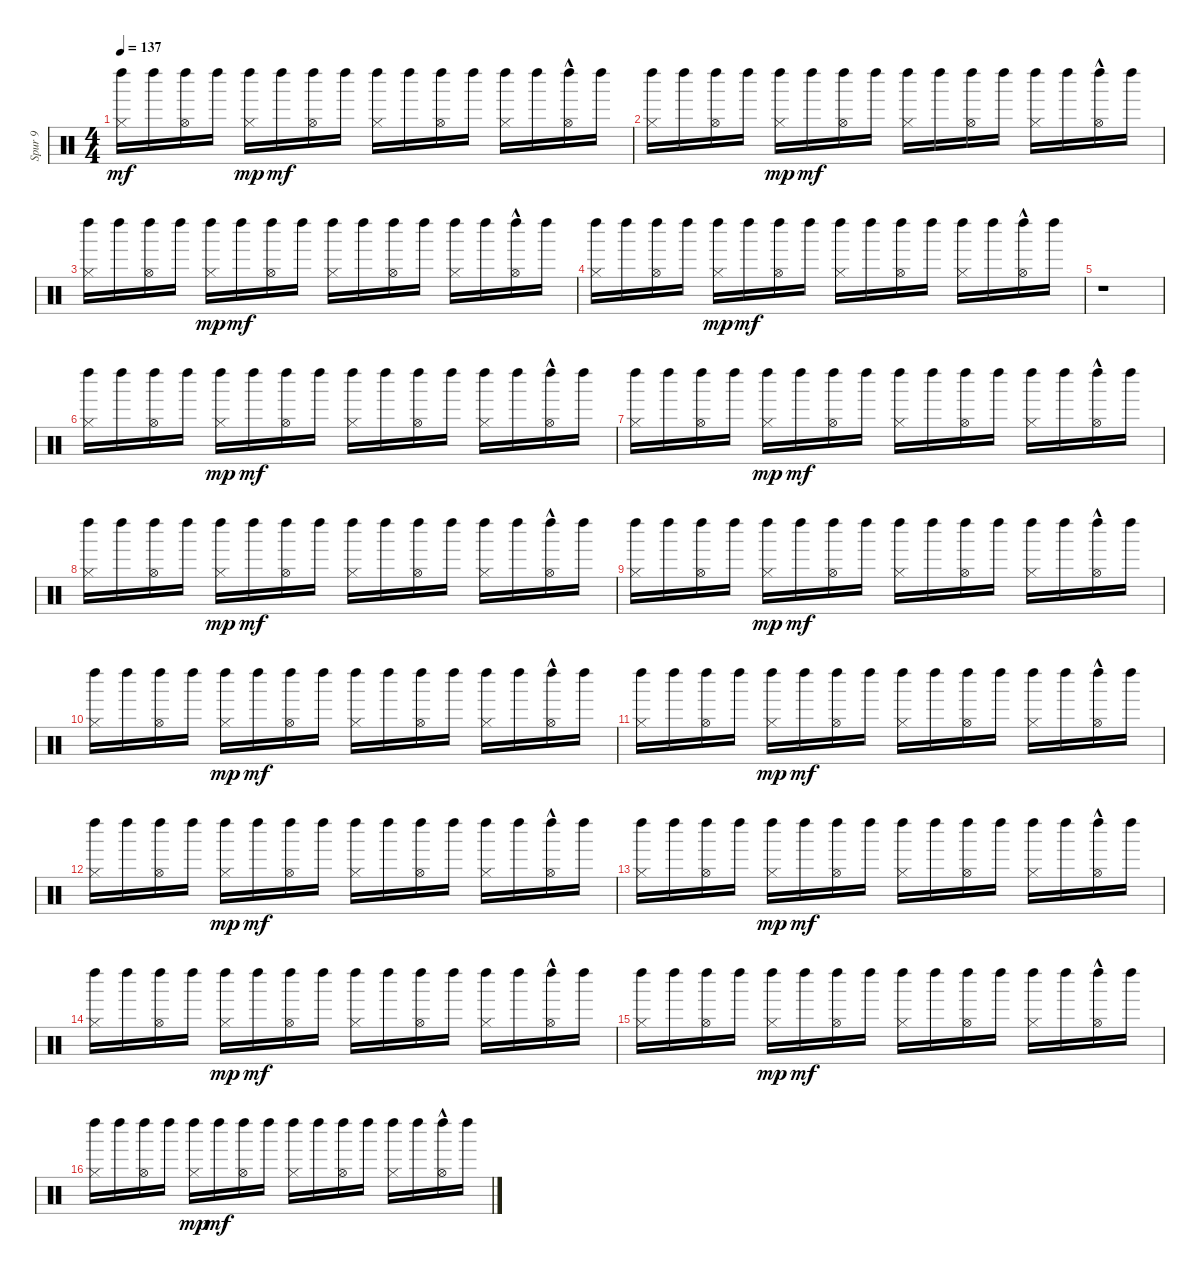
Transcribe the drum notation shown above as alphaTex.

\track ("Spur 9" "Spur 9") {instrument percussion}
\staff {score}
\articulation defaults
\ts (4 4)
\tempo 137
\clef neutral
\ks c
("Hi-Hat (closed)" "Left Maraca (hit)").16{dy mf} "Left Maraca (hit)".16 ("Hi-Hat (open)" "Left Maraca (hit)").16 "Left Maraca (hit)".16 ("Hi-Hat (closed)" "Left Maraca (hit)").16{dy mp} "Left Maraca (hit)".16{dy mf} ("Hi-Hat (open)" "Left Maraca (hit)").16 "Left Maraca (hit)".16 ("Hi-Hat (closed)" "Left Maraca (hit)").16 "Left Maraca (hit)".16 ("Hi-Hat (open)" "Left Maraca (hit)").16 "Left Maraca (hit)".16 ("Hi-Hat (closed)" "Left Maraca (hit)").16 "Left Maraca (hit)".16 ("Hi-Hat (open)"{hac} "Left Maraca (hit)").16 "Left Maraca (hit)".16 |
("Hi-Hat (closed)" "Left Maraca (hit)").16 "Left Maraca (hit)".16 ("Hi-Hat (open)" "Left Maraca (hit)").16 "Left Maraca (hit)".16 ("Hi-Hat (closed)" "Left Maraca (hit)").16{dy mp} "Left Maraca (hit)".16{dy mf} ("Hi-Hat (open)" "Left Maraca (hit)").16 "Left Maraca (hit)".16 ("Hi-Hat (closed)" "Left Maraca (hit)").16 "Left Maraca (hit)".16 ("Hi-Hat (open)" "Left Maraca (hit)").16 "Left Maraca (hit)".16 ("Hi-Hat (closed)" "Left Maraca (hit)").16 "Left Maraca (hit)".16 ("Hi-Hat (open)"{hac} "Left Maraca (hit)").16 "Left Maraca (hit)".16 |
("Hi-Hat (closed)" "Left Maraca (hit)").16 "Left Maraca (hit)".16 ("Hi-Hat (open)" "Left Maraca (hit)").16 "Left Maraca (hit)".16 ("Hi-Hat (closed)" "Left Maraca (hit)").16{dy mp} "Left Maraca (hit)".16{dy mf} ("Hi-Hat (open)" "Left Maraca (hit)").16 "Left Maraca (hit)".16 ("Hi-Hat (closed)" "Left Maraca (hit)").16 "Left Maraca (hit)".16 ("Hi-Hat (open)" "Left Maraca (hit)").16 "Left Maraca (hit)".16 ("Hi-Hat (closed)" "Left Maraca (hit)").16 "Left Maraca (hit)".16 ("Hi-Hat (open)"{hac} "Left Maraca (hit)").16 "Left Maraca (hit)".16 |
("Hi-Hat (closed)" "Left Maraca (hit)").16 "Left Maraca (hit)".16 ("Hi-Hat (open)" "Left Maraca (hit)").16 "Left Maraca (hit)".16 ("Hi-Hat (closed)" "Left Maraca (hit)").16{dy mp} "Left Maraca (hit)".16{dy mf} ("Hi-Hat (open)" "Left Maraca (hit)").16 "Left Maraca (hit)".16 ("Hi-Hat (closed)" "Left Maraca (hit)").16 "Left Maraca (hit)".16 ("Hi-Hat (open)" "Left Maraca (hit)").16 "Left Maraca (hit)".16 ("Hi-Hat (closed)" "Left Maraca (hit)").16 "Left Maraca (hit)".16 ("Hi-Hat (open)"{hac} "Left Maraca (hit)").16 "Left Maraca (hit)".16 |
r.1 |
("Hi-Hat (closed)" "Left Maraca (hit)").16 "Left Maraca (hit)".16 ("Hi-Hat (open)" "Left Maraca (hit)").16 "Left Maraca (hit)".16 ("Hi-Hat (closed)" "Left Maraca (hit)").16{dy mp} "Left Maraca (hit)".16{dy mf} ("Hi-Hat (open)" "Left Maraca (hit)").16 "Left Maraca (hit)".16 ("Hi-Hat (closed)" "Left Maraca (hit)").16 "Left Maraca (hit)".16 ("Hi-Hat (open)" "Left Maraca (hit)").16 "Left Maraca (hit)".16 ("Hi-Hat (closed)" "Left Maraca (hit)").16 "Left Maraca (hit)".16 ("Hi-Hat (open)"{hac} "Left Maraca (hit)").16 "Left Maraca (hit)".16 |
("Hi-Hat (closed)" "Left Maraca (hit)").16 "Left Maraca (hit)".16 ("Hi-Hat (open)" "Left Maraca (hit)").16 "Left Maraca (hit)".16 ("Hi-Hat (closed)" "Left Maraca (hit)").16{dy mp} "Left Maraca (hit)".16{dy mf} ("Hi-Hat (open)" "Left Maraca (hit)").16 "Left Maraca (hit)".16 ("Hi-Hat (closed)" "Left Maraca (hit)").16 "Left Maraca (hit)".16 ("Hi-Hat (open)" "Left Maraca (hit)").16 "Left Maraca (hit)".16 ("Hi-Hat (closed)" "Left Maraca (hit)").16 "Left Maraca (hit)".16 ("Hi-Hat (open)"{hac} "Left Maraca (hit)").16 "Left Maraca (hit)".16 |
("Hi-Hat (closed)" "Left Maraca (hit)").16 "Left Maraca (hit)".16 ("Hi-Hat (open)" "Left Maraca (hit)").16 "Left Maraca (hit)".16 ("Hi-Hat (closed)" "Left Maraca (hit)").16{dy mp} "Left Maraca (hit)".16{dy mf} ("Hi-Hat (open)" "Left Maraca (hit)").16 "Left Maraca (hit)".16 ("Hi-Hat (closed)" "Left Maraca (hit)").16 "Left Maraca (hit)".16 ("Hi-Hat (open)" "Left Maraca (hit)").16 "Left Maraca (hit)".16 ("Hi-Hat (closed)" "Left Maraca (hit)").16 "Left Maraca (hit)".16 ("Hi-Hat (open)"{hac} "Left Maraca (hit)").16 "Left Maraca (hit)".16 |
("Hi-Hat (closed)" "Left Maraca (hit)").16 "Left Maraca (hit)".16 ("Hi-Hat (open)" "Left Maraca (hit)").16 "Left Maraca (hit)".16 ("Hi-Hat (closed)" "Left Maraca (hit)").16{dy mp} "Left Maraca (hit)".16{dy mf} ("Hi-Hat (open)" "Left Maraca (hit)").16 "Left Maraca (hit)".16 ("Hi-Hat (closed)" "Left Maraca (hit)").16 "Left Maraca (hit)".16 ("Hi-Hat (open)" "Left Maraca (hit)").16 "Left Maraca (hit)".16 ("Hi-Hat (closed)" "Left Maraca (hit)").16 "Left Maraca (hit)".16 ("Hi-Hat (open)"{hac} "Left Maraca (hit)").16 "Left Maraca (hit)".16 |
("Hi-Hat (closed)" "Left Maraca (hit)").16 "Left Maraca (hit)".16 ("Hi-Hat (open)" "Left Maraca (hit)").16 "Left Maraca (hit)".16 ("Hi-Hat (closed)" "Left Maraca (hit)").16{dy mp} "Left Maraca (hit)".16{dy mf} ("Hi-Hat (open)" "Left Maraca (hit)").16 "Left Maraca (hit)".16 ("Hi-Hat (closed)" "Left Maraca (hit)").16 "Left Maraca (hit)".16 ("Hi-Hat (open)" "Left Maraca (hit)").16 "Left Maraca (hit)".16 ("Hi-Hat (closed)" "Left Maraca (hit)").16 "Left Maraca (hit)".16 ("Hi-Hat (open)"{hac} "Left Maraca (hit)").16 "Left Maraca (hit)".16 |
("Hi-Hat (closed)" "Left Maraca (hit)").16 "Left Maraca (hit)".16 ("Hi-Hat (open)" "Left Maraca (hit)").16 "Left Maraca (hit)".16 ("Hi-Hat (closed)" "Left Maraca (hit)").16{dy mp} "Left Maraca (hit)".16{dy mf} ("Hi-Hat (open)" "Left Maraca (hit)").16 "Left Maraca (hit)".16 ("Hi-Hat (closed)" "Left Maraca (hit)").16 "Left Maraca (hit)".16 ("Hi-Hat (open)" "Left Maraca (hit)").16 "Left Maraca (hit)".16 ("Hi-Hat (closed)" "Left Maraca (hit)").16 "Left Maraca (hit)".16 ("Hi-Hat (open)"{hac} "Left Maraca (hit)").16 "Left Maraca (hit)".16 |
("Hi-Hat (closed)" "Left Maraca (hit)").16 "Left Maraca (hit)".16 ("Hi-Hat (open)" "Left Maraca (hit)").16 "Left Maraca (hit)".16 ("Hi-Hat (closed)" "Left Maraca (hit)").16{dy mp} "Left Maraca (hit)".16{dy mf} ("Hi-Hat (open)" "Left Maraca (hit)").16 "Left Maraca (hit)".16 ("Hi-Hat (closed)" "Left Maraca (hit)").16 "Left Maraca (hit)".16 ("Hi-Hat (open)" "Left Maraca (hit)").16 "Left Maraca (hit)".16 ("Hi-Hat (closed)" "Left Maraca (hit)").16 "Left Maraca (hit)".16 ("Hi-Hat (open)"{hac} "Left Maraca (hit)").16 "Left Maraca (hit)".16 |
("Hi-Hat (closed)" "Left Maraca (hit)").16 "Left Maraca (hit)".16 ("Hi-Hat (open)" "Left Maraca (hit)").16 "Left Maraca (hit)".16 ("Hi-Hat (closed)" "Left Maraca (hit)").16{dy mp} "Left Maraca (hit)".16{dy mf} ("Hi-Hat (open)" "Left Maraca (hit)").16 "Left Maraca (hit)".16 ("Hi-Hat (closed)" "Left Maraca (hit)").16 "Left Maraca (hit)".16 ("Hi-Hat (open)" "Left Maraca (hit)").16 "Left Maraca (hit)".16 ("Hi-Hat (closed)" "Left Maraca (hit)").16 "Left Maraca (hit)".16 ("Hi-Hat (open)"{hac} "Left Maraca (hit)").16 "Left Maraca (hit)".16 |
("Hi-Hat (closed)" "Left Maraca (hit)").16 "Left Maraca (hit)".16 ("Hi-Hat (open)" "Left Maraca (hit)").16 "Left Maraca (hit)".16 ("Hi-Hat (closed)" "Left Maraca (hit)").16{dy mp} "Left Maraca (hit)".16{dy mf} ("Hi-Hat (open)" "Left Maraca (hit)").16 "Left Maraca (hit)".16 ("Hi-Hat (closed)" "Left Maraca (hit)").16 "Left Maraca (hit)".16 ("Hi-Hat (open)" "Left Maraca (hit)").16 "Left Maraca (hit)".16 ("Hi-Hat (closed)" "Left Maraca (hit)").16 "Left Maraca (hit)".16 ("Hi-Hat (open)"{hac} "Left Maraca (hit)").16 "Left Maraca (hit)".16 |
("Hi-Hat (closed)" "Left Maraca (hit)").16 "Left Maraca (hit)".16 ("Hi-Hat (open)" "Left Maraca (hit)").16 "Left Maraca (hit)".16 ("Hi-Hat (closed)" "Left Maraca (hit)").16{dy mp} "Left Maraca (hit)".16{dy mf} ("Hi-Hat (open)" "Left Maraca (hit)").16 "Left Maraca (hit)".16 ("Hi-Hat (closed)" "Left Maraca (hit)").16 "Left Maraca (hit)".16 ("Hi-Hat (open)" "Left Maraca (hit)").16 "Left Maraca (hit)".16 ("Hi-Hat (closed)" "Left Maraca (hit)").16 "Left Maraca (hit)".16 ("Hi-Hat (open)"{hac} "Left Maraca (hit)").16 "Left Maraca (hit)".16 |
("Hi-Hat (closed)" "Left Maraca (hit)").16 "Left Maraca (hit)".16 ("Hi-Hat (open)" "Left Maraca (hit)").16 "Left Maraca (hit)".16 ("Hi-Hat (closed)" "Left Maraca (hit)").16{dy mp} "Left Maraca (hit)".16{dy mf} ("Hi-Hat (open)" "Left Maraca (hit)").16 "Left Maraca (hit)".16 ("Hi-Hat (closed)" "Left Maraca (hit)").16 "Left Maraca (hit)".16 ("Hi-Hat (open)" "Left Maraca (hit)").16 "Left Maraca (hit)".16 ("Hi-Hat (closed)" "Left Maraca (hit)").16 "Left Maraca (hit)".16 ("Hi-Hat (open)"{hac} "Left Maraca (hit)").16 "Left Maraca (hit)".16
